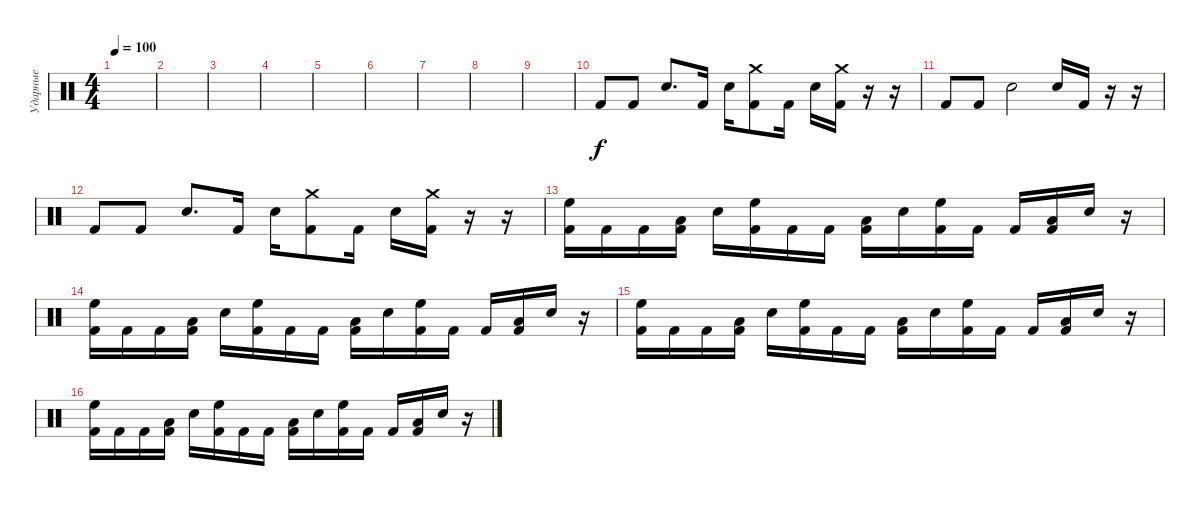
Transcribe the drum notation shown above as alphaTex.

\track ("Ударные" "Ударные") {instrument percussion}
\staff {score}
\articulation defaults
\ts (4 4)
\tempo 100
\clef neutral
\ks c
|
|
|
|
|
|
|
|
|
"Kick (hit) 2".8 "Kick (hit) 2".8 "Electric Snare (hit)".8{d} "Kick (hit) 2".16 "Electric Snare (hit)".16 ("Kick (hit) 2" "Crash medium (hit)").8 "Kick (hit) 2".16 "Electric Snare (hit)".16 ("Kick (hit) 2" "Crash medium (hit)").16 r.16 r.16 |
"Kick (hit) 2".8 "Kick (hit) 2".8 "Electric Snare (hit)".2 "Electric Snare (hit)".16 "Kick (hit) 2".16 r.16 r.16 |
"Kick (hit) 2".8 "Kick (hit) 2".8 "Electric Snare (hit)".8{d} "Kick (hit) 2".16 "Electric Snare (hit)".16 ("Kick (hit) 2" "Crash medium (hit)").8 "Kick (hit) 2".16 "Electric Snare (hit)".16 ("Kick (hit) 2" "Crash medium (hit)").16 r.16 r.16 |
("Kick (hit) 2" "High Floor Tom (hit)").16 "Kick (hit) 2".16 "Kick (hit) 2".16 ("Kick (hit) 2" "Low Tom (hit)").16 "Electric Snare (hit)".16 ("Kick (hit) 2" "High Floor Tom (hit)").16 "Kick (hit) 2".16 "Kick (hit) 2".16 ("Kick (hit) 2" "Low Tom (hit)").16 "Electric Snare (hit)".16 ("Kick (hit) 2" "High Floor Tom (hit)").16 "Kick (hit) 2".16 "Kick (hit) 2".16 ("Kick (hit) 2" "Low Tom (hit)").16 "Electric Snare (hit)".16 r.16 |
("Kick (hit) 2" "High Floor Tom (hit)").16 "Kick (hit) 2".16 "Kick (hit) 2".16 ("Kick (hit) 2" "Low Tom (hit)").16 "Electric Snare (hit)".16 ("Kick (hit) 2" "High Floor Tom (hit)").16 "Kick (hit) 2".16 "Kick (hit) 2".16 ("Kick (hit) 2" "Low Tom (hit)").16 "Electric Snare (hit)".16 ("Kick (hit) 2" "High Floor Tom (hit)").16 "Kick (hit) 2".16 "Kick (hit) 2".16 ("Kick (hit) 2" "Low Tom (hit)").16 "Electric Snare (hit)".16 r.16 |
("Kick (hit) 2" "High Floor Tom (hit)").16 "Kick (hit) 2".16 "Kick (hit) 2".16 ("Kick (hit) 2" "Low Tom (hit)").16 "Electric Snare (hit)".16 ("Kick (hit) 2" "High Floor Tom (hit)").16 "Kick (hit) 2".16 "Kick (hit) 2".16 ("Kick (hit) 2" "Low Tom (hit)").16 "Electric Snare (hit)".16 ("Kick (hit) 2" "High Floor Tom (hit)").16 "Kick (hit) 2".16 "Kick (hit) 2".16 ("Kick (hit) 2" "Low Tom (hit)").16 "Electric Snare (hit)".16 r.16 |
("Kick (hit) 2" "High Floor Tom (hit)").16 "Kick (hit) 2".16 "Kick (hit) 2".16 ("Kick (hit) 2" "Low Tom (hit)").16 "Electric Snare (hit)".16 ("Kick (hit) 2" "High Floor Tom (hit)").16 "Kick (hit) 2".16 "Kick (hit) 2".16 ("Kick (hit) 2" "Low Tom (hit)").16 "Electric Snare (hit)".16 ("Kick (hit) 2" "High Floor Tom (hit)").16 "Kick (hit) 2".16 "Kick (hit) 2".16 ("Kick (hit) 2" "Low Tom (hit)").16 "Electric Snare (hit)".16 r.16
